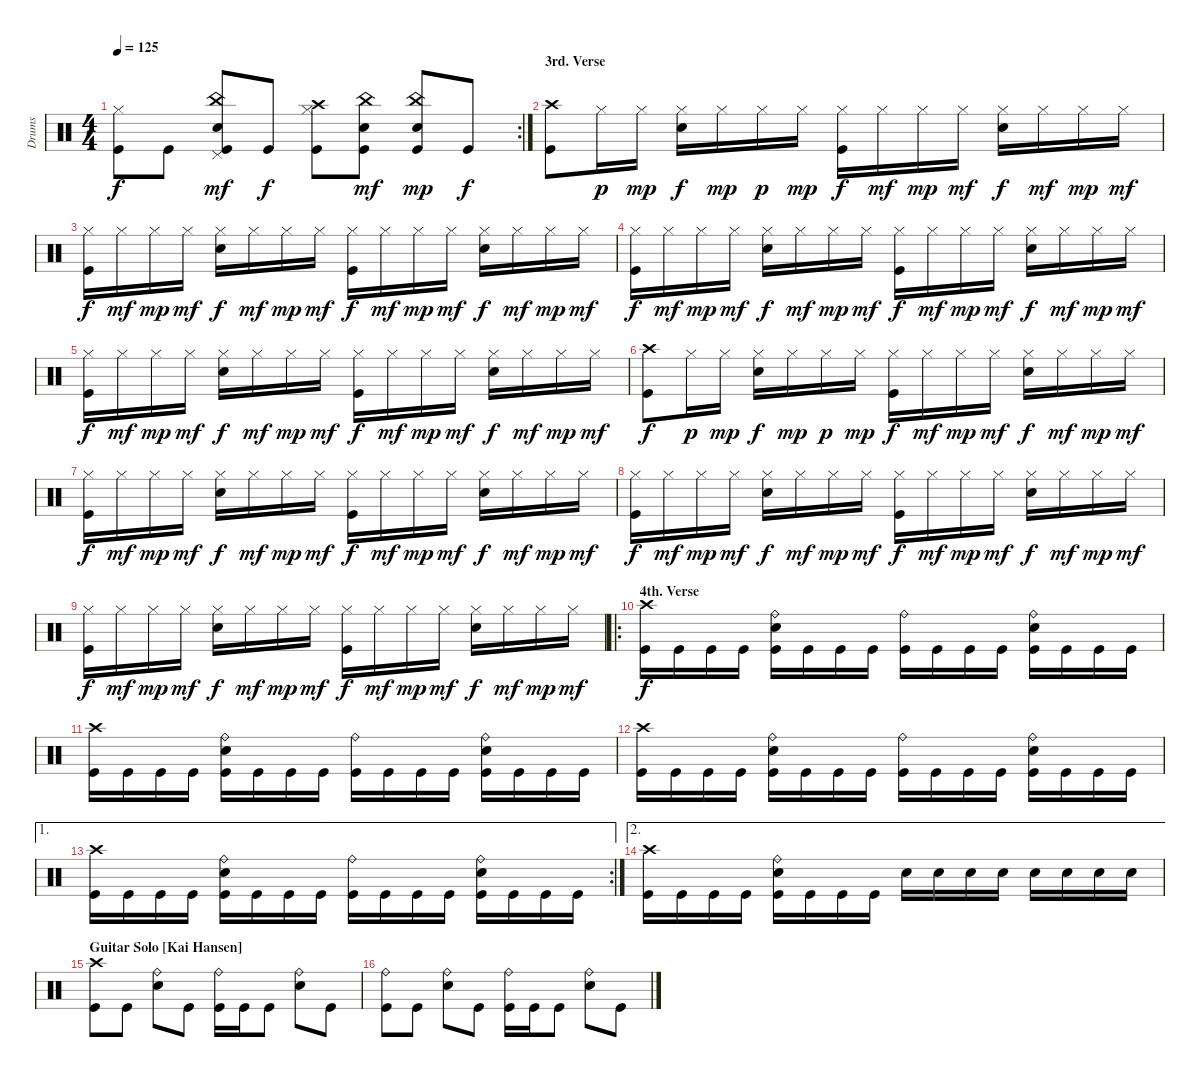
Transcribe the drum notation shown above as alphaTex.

\track ("Drums" "Drums") {instrument percussion}
\staff {score}
\articulation defaults
\rc 2
\ts (4 4)
\tempo 125
\clef neutral
\ks c
("Hi-Hat (closed)" "Kick (hit)").8{dy f} "Kick (hit)".8 ("China (hit)" "Pedal Hi-Hat (hit)" "Snare (hit) 2" "Kick (hit)").8{dy mf} "Kick (hit)".8{dy f} ("Crash high (hit)" "Hi-Hat (closed)" "Kick (hit)").8 ("China (hit)" "Snare (hit) 2" "Kick (hit)").8{dy mf} ("China (hit)" "Snare (hit) 2" "Kick (hit)").8{dy mp} "Kick (hit)".8{dy f} |
\section ("" "3rd. Verse")
("Crash high (hit)" "Kick (hit)").8 "Hi-Hat (closed)".16{dy p} "Hi-Hat (closed)".16{dy mp} ("Hi-Hat (closed)" "Snare (hit) 2").16{dy f} "Hi-Hat (closed)".16{dy mp} "Hi-Hat (closed)".16{dy p} "Hi-Hat (closed)".16{dy mp} ("Hi-Hat (closed)" "Kick (hit)").16{dy f} "Hi-Hat (closed)".16{dy mf} "Hi-Hat (closed)".16{dy mp} "Hi-Hat (closed)".16{dy mf} ("Hi-Hat (closed)" "Snare (hit) 2").16{dy f} "Hi-Hat (closed)".16{dy mf} "Hi-Hat (closed)".16{dy mp} "Hi-Hat (closed)".16{dy mf} |
("Hi-Hat (closed)" "Kick (hit)").16{dy f} "Hi-Hat (closed)".16{dy mf} "Hi-Hat (closed)".16{dy mp} "Hi-Hat (closed)".16{dy mf} ("Hi-Hat (closed)" "Snare (hit) 2").16{dy f} "Hi-Hat (closed)".16{dy mf} "Hi-Hat (closed)".16{dy mp} "Hi-Hat (closed)".16{dy mf} ("Hi-Hat (closed)" "Kick (hit)").16{dy f} "Hi-Hat (closed)".16{dy mf} "Hi-Hat (closed)".16{dy mp} "Hi-Hat (closed)".16{dy mf} ("Hi-Hat (closed)" "Snare (hit) 2").16{dy f} "Hi-Hat (closed)".16{dy mf} "Hi-Hat (closed)".16{dy mp} "Hi-Hat (closed)".16{dy mf} |
("Hi-Hat (closed)" "Kick (hit)").16{dy f} "Hi-Hat (closed)".16{dy mf} "Hi-Hat (closed)".16{dy mp} "Hi-Hat (closed)".16{dy mf} ("Hi-Hat (closed)" "Snare (hit) 2").16{dy f} "Hi-Hat (closed)".16{dy mf} "Hi-Hat (closed)".16{dy mp} "Hi-Hat (closed)".16{dy mf} ("Hi-Hat (closed)" "Kick (hit)").16{dy f} "Hi-Hat (closed)".16{dy mf} "Hi-Hat (closed)".16{dy mp} "Hi-Hat (closed)".16{dy mf} ("Hi-Hat (closed)" "Snare (hit) 2").16{dy f} "Hi-Hat (closed)".16{dy mf} "Hi-Hat (closed)".16{dy mp} "Hi-Hat (closed)".16{dy mf} |
("Hi-Hat (closed)" "Kick (hit)").16{dy f} "Hi-Hat (closed)".16{dy mf} "Hi-Hat (closed)".16{dy mp} "Hi-Hat (closed)".16{dy mf} ("Hi-Hat (closed)" "Snare (hit) 2").16{dy f} "Hi-Hat (closed)".16{dy mf} "Hi-Hat (closed)".16{dy mp} "Hi-Hat (closed)".16{dy mf} ("Hi-Hat (closed)" "Kick (hit)").16{dy f} "Hi-Hat (closed)".16{dy mf} "Hi-Hat (closed)".16{dy mp} "Hi-Hat (closed)".16{dy mf} ("Hi-Hat (closed)" "Snare (hit) 2").16{dy f} "Hi-Hat (closed)".16{dy mf} "Hi-Hat (closed)".16{dy mp} "Hi-Hat (closed)".16{dy mf} |
("Crash high (hit)" "Kick (hit)").8{dy f} "Hi-Hat (closed)".16{dy p} "Hi-Hat (closed)".16{dy mp} ("Hi-Hat (closed)" "Snare (hit) 2").16{dy f} "Hi-Hat (closed)".16{dy mp} "Hi-Hat (closed)".16{dy p} "Hi-Hat (closed)".16{dy mp} ("Hi-Hat (closed)" "Kick (hit)").16{dy f} "Hi-Hat (closed)".16{dy mf} "Hi-Hat (closed)".16{dy mp} "Hi-Hat (closed)".16{dy mf} ("Hi-Hat (closed)" "Snare (hit) 2").16{dy f} "Hi-Hat (closed)".16{dy mf} "Hi-Hat (closed)".16{dy mp} "Hi-Hat (closed)".16{dy mf} |
("Hi-Hat (closed)" "Kick (hit)").16{dy f} "Hi-Hat (closed)".16{dy mf} "Hi-Hat (closed)".16{dy mp} "Hi-Hat (closed)".16{dy mf} ("Hi-Hat (closed)" "Snare (hit) 2").16{dy f} "Hi-Hat (closed)".16{dy mf} "Hi-Hat (closed)".16{dy mp} "Hi-Hat (closed)".16{dy mf} ("Hi-Hat (closed)" "Kick (hit)").16{dy f} "Hi-Hat (closed)".16{dy mf} "Hi-Hat (closed)".16{dy mp} "Hi-Hat (closed)".16{dy mf} ("Hi-Hat (closed)" "Snare (hit) 2").16{dy f} "Hi-Hat (closed)".16{dy mf} "Hi-Hat (closed)".16{dy mp} "Hi-Hat (closed)".16{dy mf} |
("Hi-Hat (closed)" "Kick (hit)").16{dy f} "Hi-Hat (closed)".16{dy mf} "Hi-Hat (closed)".16{dy mp} "Hi-Hat (closed)".16{dy mf} ("Hi-Hat (closed)" "Snare (hit) 2").16{dy f} "Hi-Hat (closed)".16{dy mf} "Hi-Hat (closed)".16{dy mp} "Hi-Hat (closed)".16{dy mf} ("Hi-Hat (closed)" "Kick (hit)").16{dy f} "Hi-Hat (closed)".16{dy mf} "Hi-Hat (closed)".16{dy mp} "Hi-Hat (closed)".16{dy mf} ("Hi-Hat (closed)" "Snare (hit) 2").16{dy f} "Hi-Hat (closed)".16{dy mf} "Hi-Hat (closed)".16{dy mp} "Hi-Hat (closed)".16{dy mf} |
("Hi-Hat (closed)" "Kick (hit)").16{dy f} "Hi-Hat (closed)".16{dy mf} "Hi-Hat (closed)".16{dy mp} "Hi-Hat (closed)".16{dy mf} ("Hi-Hat (closed)" "Snare (hit) 2").16{dy f} "Hi-Hat (closed)".16{dy mf} "Hi-Hat (closed)".16{dy mp} "Hi-Hat (closed)".16{dy mf} ("Hi-Hat (closed)" "Kick (hit)").16{dy f} "Hi-Hat (closed)".16{dy mf} "Hi-Hat (closed)".16{dy mp} "Hi-Hat (closed)".16{dy mf} ("Hi-Hat (closed)" "Snare (hit) 2").16{dy f} "Hi-Hat (closed)".16{dy mf} "Hi-Hat (closed)".16{dy mp} "Hi-Hat (closed)".16{dy mf} |
\ro
\section ("" "4th. Verse")
("Crash high (hit)" "Kick (hit)").16{dy f} "Kick (hit)".16 "Kick (hit)".16 "Kick (hit)".16 ("Ride (bell)" "Snare (hit) 2" "Kick (hit)").16 "Kick (hit)".16 "Kick (hit)".16 "Kick (hit)".16 ("Ride (bell)" "Kick (hit)").16 "Kick (hit)".16 "Kick (hit)".16 "Kick (hit)".16 ("Ride (bell)" "Snare (hit) 2" "Kick (hit)").16 "Kick (hit)".16 "Kick (hit)".16 "Kick (hit)".16 |
("Crash high (hit)" "Kick (hit)").16 "Kick (hit)".16 "Kick (hit)".16 "Kick (hit)".16 ("Ride (bell)" "Snare (hit) 2" "Kick (hit)").16 "Kick (hit)".16 "Kick (hit)".16 "Kick (hit)".16 ("Ride (bell)" "Kick (hit)").16 "Kick (hit)".16 "Kick (hit)".16 "Kick (hit)".16 ("Ride (bell)" "Snare (hit) 2" "Kick (hit)").16 "Kick (hit)".16 "Kick (hit)".16 "Kick (hit)".16 |
("Crash high (hit)" "Kick (hit)").16 "Kick (hit)".16 "Kick (hit)".16 "Kick (hit)".16 ("Ride (bell)" "Snare (hit) 2" "Kick (hit)").16 "Kick (hit)".16 "Kick (hit)".16 "Kick (hit)".16 ("Ride (bell)" "Kick (hit)").16 "Kick (hit)".16 "Kick (hit)".16 "Kick (hit)".16 ("Ride (bell)" "Snare (hit) 2" "Kick (hit)").16 "Kick (hit)".16 "Kick (hit)".16 "Kick (hit)".16 |
\ae 1
\rc 2
("Crash high (hit)" "Kick (hit)").16 "Kick (hit)".16 "Kick (hit)".16 "Kick (hit)".16 ("Ride (bell)" "Snare (hit) 2" "Kick (hit)").16 "Kick (hit)".16 "Kick (hit)".16 "Kick (hit)".16 ("Ride (bell)" "Kick (hit)").16 "Kick (hit)".16 "Kick (hit)".16 "Kick (hit)".16 ("Ride (bell)" "Snare (hit) 2" "Kick (hit)").16 "Kick (hit)".16 "Kick (hit)".16 "Kick (hit)".16 |
\ae 2
("Crash high (hit)" "Kick (hit)").16 "Kick (hit)".16 "Kick (hit)".16 "Kick (hit)".16 ("Ride (bell)" "Snare (hit) 2" "Kick (hit)").16 "Kick (hit)".16 "Kick (hit)".16 "Kick (hit)".16 "Snare (hit) 2".16 "Snare (hit) 2".16 "Snare (hit) 2".16 "Snare (hit) 2".16 "Snare (hit) 2".16 "Snare (hit) 2".16 "Snare (hit) 2".16 "Snare (hit) 2".16 |
\section ("" "Guitar Solo [Kai Hansen]")
("Crash high (hit)" "Kick (hit)").8 "Kick (hit)".8 ("Ride (bell)" "Snare (hit) 2").8 "Kick (hit)".8 ("Ride (bell)" "Kick (hit)").16 "Kick (hit)".16 "Kick (hit)".8 ("Ride (bell)" "Snare (hit) 2").8 "Kick (hit)".8 |
("Ride (bell)" "Kick (hit)").8 "Kick (hit)".8 ("Ride (bell)" "Snare (hit) 2").8 "Kick (hit)".8 ("Ride (bell)" "Kick (hit)").16 "Kick (hit)".16 "Kick (hit)".8 ("Ride (bell)" "Snare (hit) 2").8 "Kick (hit)".8
